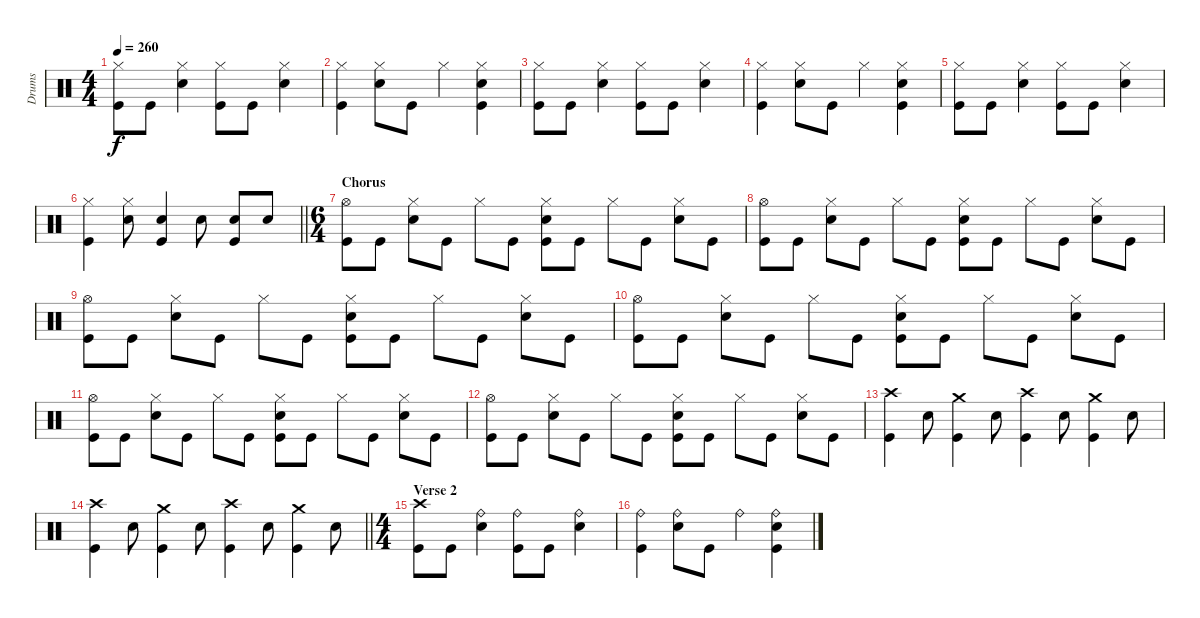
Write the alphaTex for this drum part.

\track ("Drums" "Drums") {instrument percussion}
\staff {score}
\articulation defaults
\ts (4 4)
\tempo 260
\clef neutral
\ks c
("Hi-Hat (closed)" "Kick (hit)").8{dy f} "Kick (hit)".8 ("Hi-Hat (closed)" "Snare (hit) 2").4 ("Hi-Hat (closed)" "Kick (hit)").8 "Kick (hit)".8 ("Hi-Hat (closed)" "Snare (hit) 2").4 |
("Hi-Hat (closed)" "Kick (hit)").4 ("Hi-Hat (closed)" "Snare (hit) 2").8 "Kick (hit)".8 "Hi-Hat (closed)".4 ("Hi-Hat (closed)" "Snare (hit) 2" "Kick (hit)").4 |
("Hi-Hat (closed)" "Kick (hit)").8 "Kick (hit)".8 ("Hi-Hat (closed)" "Snare (hit) 2").4 ("Hi-Hat (closed)" "Kick (hit)").8 "Kick (hit)".8 ("Hi-Hat (closed)" "Snare (hit) 2").4 |
("Hi-Hat (closed)" "Kick (hit)").4 ("Hi-Hat (closed)" "Snare (hit) 2").8 "Kick (hit)".8 "Hi-Hat (closed)".4 ("Hi-Hat (closed)" "Snare (hit) 2" "Kick (hit)").4 |
("Hi-Hat (closed)" "Kick (hit)").8 "Kick (hit)".8 ("Hi-Hat (closed)" "Snare (hit) 2").4 ("Hi-Hat (closed)" "Kick (hit)").8 "Kick (hit)".8 ("Hi-Hat (closed)" "Snare (hit) 2").4 |
\barLineRight lightlight
("Hi-Hat (closed)" "Kick (hit)").4 ("Hi-Hat (closed)" "Snare (hit) 2").8 ("Snare (hit) 2" "Kick (hit)").4 "Snare (hit) 2".8 ("Snare (hit) 2" "Kick (hit)").8 "Snare (hit) 2".8 |
\ts (6 4)
\section ("" "Chorus")
("Hi-Hat (open)" "Kick (hit)").8 "Kick (hit)".8 ("Hi-Hat (closed)" "Snare (hit) 2").8 "Kick (hit)".8 "Hi-Hat (closed)".8 "Kick (hit)".8 ("Hi-Hat (closed)" "Snare (hit) 2" "Kick (hit)").8 "Kick (hit)".8 "Hi-Hat (closed)".8 "Kick (hit)".8 ("Hi-Hat (closed)" "Snare (hit) 2").8 "Kick (hit)".8 |
("Hi-Hat (open)" "Kick (hit)").8 "Kick (hit)".8 ("Hi-Hat (closed)" "Snare (hit) 2").8 "Kick (hit)".8 "Hi-Hat (closed)".8 "Kick (hit)".8 ("Hi-Hat (closed)" "Snare (hit) 2" "Kick (hit)").8 "Kick (hit)".8 "Hi-Hat (closed)".8 "Kick (hit)".8 ("Hi-Hat (closed)" "Snare (hit) 2").8 "Kick (hit)".8 |
("Hi-Hat (open)" "Kick (hit)").8 "Kick (hit)".8 ("Hi-Hat (closed)" "Snare (hit) 2").8 "Kick (hit)".8 "Hi-Hat (closed)".8 "Kick (hit)".8 ("Hi-Hat (closed)" "Snare (hit) 2" "Kick (hit)").8 "Kick (hit)".8 "Hi-Hat (closed)".8 "Kick (hit)".8 ("Hi-Hat (closed)" "Snare (hit) 2").8 "Kick (hit)".8 |
("Hi-Hat (open)" "Kick (hit)").8 "Kick (hit)".8 ("Hi-Hat (closed)" "Snare (hit) 2").8 "Kick (hit)".8 "Hi-Hat (closed)".8 "Kick (hit)".8 ("Hi-Hat (closed)" "Snare (hit) 2" "Kick (hit)").8 "Kick (hit)".8 "Hi-Hat (closed)".8 "Kick (hit)".8 ("Hi-Hat (closed)" "Snare (hit) 2").8 "Kick (hit)".8 |
("Hi-Hat (open)" "Kick (hit)").8 "Kick (hit)".8 ("Hi-Hat (closed)" "Snare (hit) 2").8 "Kick (hit)".8 "Hi-Hat (closed)".8 "Kick (hit)".8 ("Hi-Hat (closed)" "Snare (hit) 2" "Kick (hit)").8 "Kick (hit)".8 "Hi-Hat (closed)".8 "Kick (hit)".8 ("Hi-Hat (closed)" "Snare (hit) 2").8 "Kick (hit)".8 |
("Hi-Hat (open)" "Kick (hit)").8 "Kick (hit)".8 ("Hi-Hat (closed)" "Snare (hit) 2").8 "Kick (hit)".8 "Hi-Hat (closed)".8 "Kick (hit)".8 ("Hi-Hat (closed)" "Snare (hit) 2" "Kick (hit)").8 "Kick (hit)".8 "Hi-Hat (closed)".8 "Kick (hit)".8 ("Hi-Hat (closed)" "Snare (hit) 2").8 "Kick (hit)".8 |
("Crash high (hit)" "Kick (hit)").4 "Snare (hit) 2".8 ("Crash medium (hit)" "Kick (hit)").4 "Snare (hit) 2".8 ("Crash high (hit)" "Kick (hit)").4 "Snare (hit) 2".8 ("Crash medium (hit)" "Kick (hit)").4 "Snare (hit) 2".8 |
\barLineRight lightlight
("Crash high (hit)" "Kick (hit)").4 "Snare (hit) 2".8 ("Crash medium (hit)" "Kick (hit)").4 "Snare (hit) 2".8 ("Crash high (hit)" "Kick (hit)").4 "Snare (hit) 2".8 ("Crash medium (hit)" "Kick (hit)").4 "Snare (hit) 2".8 |
\ts (4 4)
\section ("" "Verse 2")
("Crash high (hit)" "Kick (hit)").8 "Kick (hit)".8 ("Ride (bell)" "Snare (hit) 2").4 ("Ride (bell)" "Kick (hit)").8 "Kick (hit)".8 ("Ride (bell)" "Snare (hit) 2").4 |
("Ride (bell)" "Kick (hit)").4 ("Ride (bell)" "Snare (hit) 2").8 "Kick (hit)".8 "Ride (bell)".4 ("Ride (bell)" "Snare (hit) 2" "Kick (hit)").4
